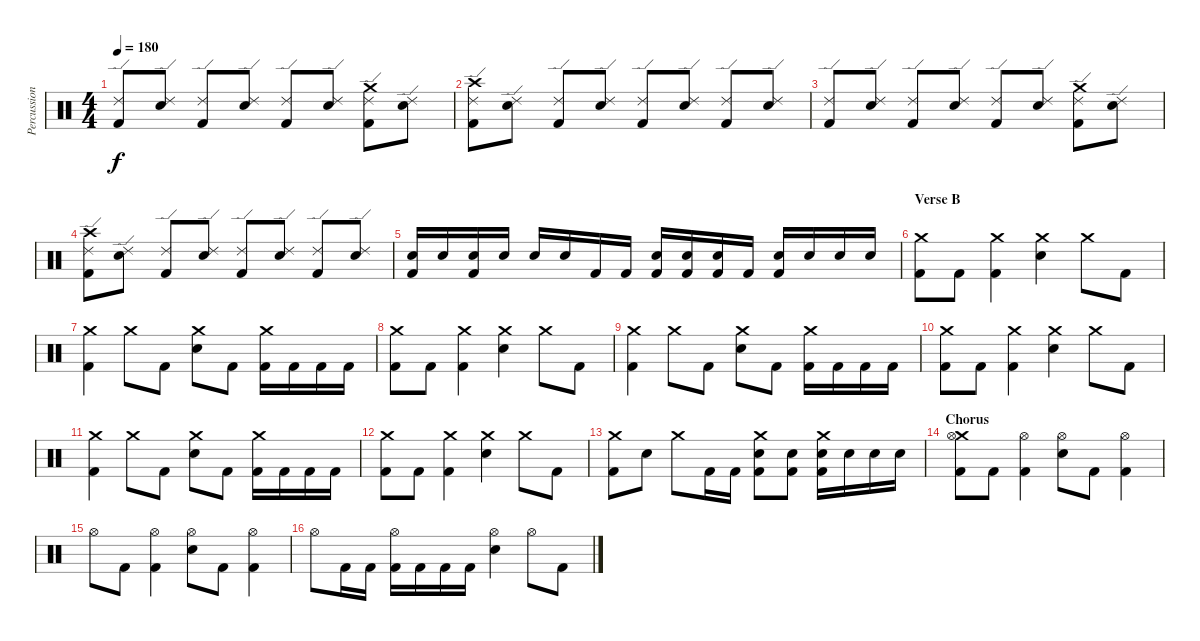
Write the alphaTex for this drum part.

\track ("Percussion" "Percussion") {instrument percussion}
\staff {score}
\articulation defaults
\ts (4 4)
\tempo 180
\clef neutral
\ks c
("Ride (edge) 2" "Kick (hit) 2").8{dy f} ("Ride (edge) 2" "Electric Snare (hit)").8 ("Ride (edge) 2" "Kick (hit) 2").8 ("Ride (edge) 2" "Electric Snare (hit)").8 ("Ride (edge) 2" "Kick (hit) 2").8 ("Ride (edge) 2" "Electric Snare (hit)").8 ("Crash medium (hit)" "Ride (edge) 2" "Kick (hit) 2").8 ("Ride (edge) 2" "Electric Snare (hit)").8 |
("Crash high (hit)" "Ride (edge) 2" "Kick (hit) 2").8 ("Ride (edge) 2" "Electric Snare (hit)").8 ("Ride (edge) 2" "Kick (hit) 2").8 ("Ride (edge) 2" "Electric Snare (hit)").8 ("Ride (edge) 2" "Kick (hit) 2").8 ("Ride (edge) 2" "Electric Snare (hit)").8 ("Ride (edge) 2" "Kick (hit) 2").8 ("Ride (edge) 2" "Electric Snare (hit)").8 |
("Ride (edge) 2" "Kick (hit) 2").8 ("Ride (edge) 2" "Electric Snare (hit)").8 ("Ride (edge) 2" "Kick (hit) 2").8 ("Ride (edge) 2" "Electric Snare (hit)").8 ("Ride (edge) 2" "Kick (hit) 2").8 ("Ride (edge) 2" "Electric Snare (hit)").8 ("Crash medium (hit)" "Ride (edge) 2" "Kick (hit) 2").8 ("Ride (edge) 2" "Electric Snare (hit)").8 |
("Crash high (hit)" "Ride (edge) 2" "Kick (hit) 2").8 ("Ride (edge) 2" "Electric Snare (hit)").8 ("Ride (edge) 2" "Kick (hit) 2").8 ("Ride (edge) 2" "Electric Snare (hit)").8 ("Ride (edge) 2" "Kick (hit) 2").8 ("Ride (edge) 2" "Electric Snare (hit)").8 ("Ride (edge) 2" "Kick (hit) 2").8 ("Ride (edge) 2" "Electric Snare (hit)").8 |
("Electric Snare (hit)" "Kick (hit) 2").16 "Electric Snare (hit)".16 ("Electric Snare (hit)" "Kick (hit) 2").16 "Electric Snare (hit)".16 "Electric Snare (hit)".16 "Electric Snare (hit)".16 "Kick (hit) 2".16 "Kick (hit) 2".16 ("Electric Snare (hit)" "Kick (hit) 2").16 ("Electric Snare (hit)" "Kick (hit) 2").16 ("Electric Snare (hit)" "Kick (hit) 2").16 "Kick (hit) 2".16 ("Electric Snare (hit)" "Kick (hit) 2").16 "Electric Snare (hit)".16 "Electric Snare (hit)".16 "Electric Snare (hit)".16 |
\section ("" "Verse B")
("Crash medium (hit)" "Kick (hit) 2").8 "Kick (hit) 2".8 ("Crash medium (hit)" "Kick (hit) 2").4 ("Crash medium (hit)" "Electric Snare (hit)").4 "Crash medium (hit)".8 "Kick (hit) 2".8 |
("Crash medium (hit)" "Kick (hit) 2").4 "Crash medium (hit)".8 "Kick (hit) 2".8 ("Crash medium (hit)" "Electric Snare (hit)").8 "Kick (hit) 2".8 ("Crash medium (hit)" "Kick (hit) 2").16 "Kick (hit) 2".16 "Kick (hit) 2".16 "Kick (hit) 2".16 |
("Crash medium (hit)" "Kick (hit) 2").8 "Kick (hit) 2".8 ("Crash medium (hit)" "Kick (hit) 2").4 ("Crash medium (hit)" "Electric Snare (hit)").4 "Crash medium (hit)".8 "Kick (hit) 2".8 |
("Crash medium (hit)" "Kick (hit) 2").4 "Crash medium (hit)".8 "Kick (hit) 2".8 ("Crash medium (hit)" "Electric Snare (hit)").8 "Kick (hit) 2".8 ("Crash medium (hit)" "Kick (hit) 2").16 "Kick (hit) 2".16 "Kick (hit) 2".16 "Kick (hit) 2".16 |
("Crash medium (hit)" "Kick (hit) 2").8 "Kick (hit) 2".8 ("Crash medium (hit)" "Kick (hit) 2").4 ("Crash medium (hit)" "Electric Snare (hit)").4 "Crash medium (hit)".8 "Kick (hit) 2".8 |
("Crash medium (hit)" "Kick (hit) 2").4 "Crash medium (hit)".8 "Kick (hit) 2".8 ("Crash medium (hit)" "Electric Snare (hit)").8 "Kick (hit) 2".8 ("Crash medium (hit)" "Kick (hit) 2").16 "Kick (hit) 2".16 "Kick (hit) 2".16 "Kick (hit) 2".16 |
("Crash medium (hit)" "Kick (hit) 2").8 "Kick (hit) 2".8 ("Crash medium (hit)" "Kick (hit) 2").4 ("Crash medium (hit)" "Electric Snare (hit)").4 "Crash medium (hit)".8 "Kick (hit) 2".8 |
("Crash medium (hit)" "Kick (hit) 2").8 "Electric Snare (hit)".8 "Crash medium (hit)".8 "Kick (hit) 2".16 "Kick (hit) 2".16 ("Crash medium (hit)" "Electric Snare (hit)" "Kick (hit) 2").8 ("Electric Snare (hit)" "Kick (hit) 2").8 ("Crash medium (hit)" "Electric Snare (hit)" "Kick (hit) 2").16 "Electric Snare (hit)".16 "Electric Snare (hit)".16 "Electric Snare (hit)".16 |
\section ("" "Chorus")
("Crash medium (hit)" "Hi-Hat (open)" "Kick (hit) 2").8 "Kick (hit) 2".8 ("Hi-Hat (open)" "Kick (hit) 2").4 ("Hi-Hat (open)" "Electric Snare (hit)").8 "Kick (hit) 2".8 ("Hi-Hat (open)" "Kick (hit) 2").4 |
"Hi-Hat (open)".8 "Kick (hit) 2".8 ("Hi-Hat (open)" "Kick (hit) 2").4 ("Hi-Hat (open)" "Electric Snare (hit)").8 "Kick (hit) 2".8 ("Hi-Hat (open)" "Kick (hit) 2").4 |
"Hi-Hat (open)".8 "Kick (hit) 2".16 "Kick (hit) 2".16 ("Hi-Hat (open)" "Kick (hit) 2").16 "Kick (hit) 2".16 "Kick (hit) 2".16 "Kick (hit) 2".16 ("Hi-Hat (open)" "Electric Snare (hit)").4 "Hi-Hat (open)".8 "Kick (hit) 2".8
